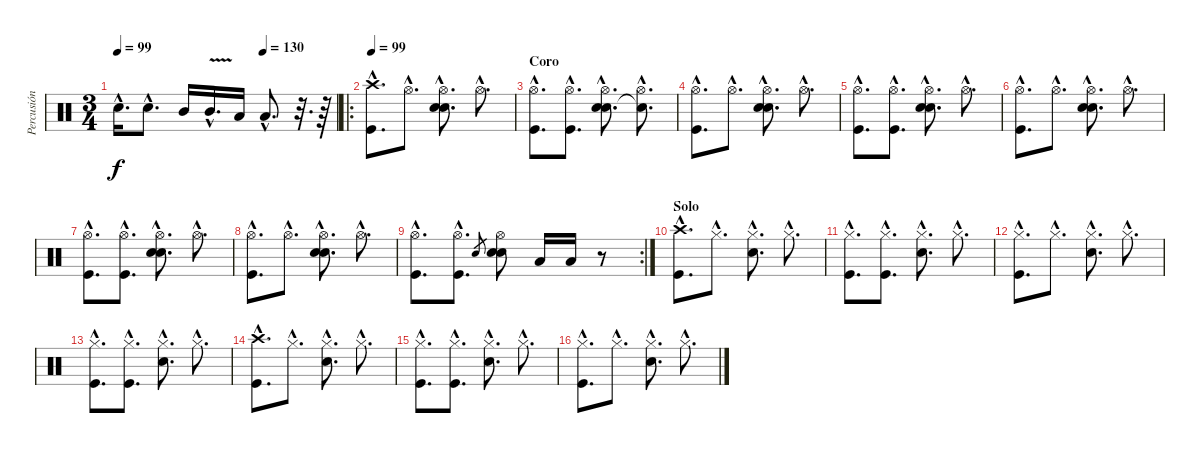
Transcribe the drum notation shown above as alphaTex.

\track ("Percusión" "Percusión") {instrument percussion}
\staff {score}
\articulation defaults
\ts (3 4)
\tempo 99
\tempo (130 0.6666666666666666)
\clef neutral
\ks c "Snare (hit) 2"{hac}.16{d dy f} "Snare (hit) 2"{hac}.8{d} "Mid Tom (hit)".16 "Mid Tom (hit)"{v hac}.16{d} "Low Tom (hit)".16 "Low Tom (hit)"{hac}.8{d}
r.32{d} r.64 |
\ro
\tempo 99
("Crash high (hit)"{hac} "Kick (hit)"{hac}).8{d} "Hi-Hat (open)"{hac}.8{d} ("Hi-Hat (open)"{hac} "Electric Snare (hit)"{hac} "Snare (hit) 2"{hac}).8{d} "Hi-Hat (open)"{hac}.8{d} |
\section ("" "Coro ")
("Hi-Hat (open)"{hac} "Kick (hit)"{hac}).8{d} ("Hi-Hat (open)"{hac} "Kick (hit)"{hac}).8{d} ("Hi-Hat (open)"{hac} "Electric Snare (hit)"{hac} "Snare (hit) 2"{hac}).8{d} ("Hi-Hat (open)"{hac} "Snare (hit)"{hac t}).8{d} |
("Hi-Hat (open)"{hac} "Kick (hit)"{hac}).8{d} "Hi-Hat (open)"{hac}.8{d} ("Hi-Hat (open)"{hac} "Electric Snare (hit)"{hac} "Snare (hit) 2"{hac}).8{d} "Hi-Hat (open)"{hac}.8{d} |
("Hi-Hat (open)"{hac} "Kick (hit)"{hac}).8{d} ("Hi-Hat (open)"{hac} "Kick (hit)"{hac}).8{d} ("Hi-Hat (open)"{hac} "Electric Snare (hit)"{hac} "Snare (hit) 2"{hac}).8{d} "Hi-Hat (open)"{hac}.8{d} |
("Hi-Hat (open)"{hac} "Kick (hit)"{hac}).8{d} "Hi-Hat (open)"{hac}.8{d} ("Hi-Hat (open)"{hac} "Electric Snare (hit)"{hac} "Snare (hit) 2"{hac}).8{d} "Hi-Hat (open)"{hac}.8{d} |
("Hi-Hat (open)"{hac} "Kick (hit)"{hac}).8{d} ("Hi-Hat (open)"{hac} "Kick (hit)"{hac}).8{d} ("Hi-Hat (open)"{hac} "Electric Snare (hit)"{hac} "Snare (hit) 2"{hac}).8{d} "Hi-Hat (open)"{hac}.8{d} |
("Hi-Hat (open)"{hac} "Kick (hit)"{hac}).8{d} "Hi-Hat (open)"{hac}.8{d} ("Hi-Hat (open)"{hac} "Electric Snare (hit)"{hac} "Snare (hit) 2"{hac}).8{d} "Hi-Hat (open)"{hac}.8{d} |
\rc 2
("Hi-Hat (open)"{hac} "Kick (hit)"{hac}).8{d} ("Hi-Hat (open)"{hac} "Kick (hit)"{hac}).8{d} "Snare (hit) 2".8{gr} ("Hi-Hat (open)" "Snare (hit) 2" "Electric Snare (hit)").8 "Low Tom (hit)".16 "Low Tom (hit)".16 r.8 |
\section ("" "Solo")
("Crash high (hit)"{hac} "Kick (hit)"{hac}).8{d} "Hi-Hat (closed)"{hac}.8{d} ("Hi-Hat (closed)"{hac} "Snare (hit) 2"{hac}).8{d} "Hi-Hat (closed)"{hac}.8{d} |
("Hi-Hat (closed)"{hac} "Kick (hit)"{hac}).8{d} ("Hi-Hat (closed)"{hac} "Kick (hit)"{hac}).8{d} ("Hi-Hat (closed)"{hac} "Snare (hit) 2"{hac}).8{d} "Hi-Hat (closed)"{hac}.8{d} |
("Hi-Hat (closed)"{hac} "Kick (hit)"{hac}).8{d} "Hi-Hat (closed)"{hac}.8{d} ("Hi-Hat (closed)"{hac} "Snare (hit) 2"{hac}).8{d} "Hi-Hat (closed)"{hac}.8{d} |
("Hi-Hat (closed)"{hac} "Kick (hit)"{hac}).8{d} ("Hi-Hat (closed)"{hac} "Kick (hit)"{hac}).8{d} ("Hi-Hat (closed)"{hac} "Snare (hit) 2"{hac}).8{d} "Hi-Hat (closed)"{hac}.8{d} |
("Crash high (hit)"{hac} "Kick (hit)"{hac}).8{d} "Hi-Hat (closed)"{hac}.8{d} ("Hi-Hat (closed)"{hac} "Snare (hit) 2"{hac}).8{d} "Hi-Hat (closed)"{hac}.8{d} |
("Hi-Hat (closed)"{hac} "Kick (hit)"{hac}).8{d} ("Hi-Hat (closed)"{hac} "Kick (hit)"{hac}).8{d} ("Hi-Hat (closed)"{hac} "Snare (hit) 2"{hac}).8{d} "Hi-Hat (closed)"{hac}.8{d} |
("Hi-Hat (closed)"{hac} "Kick (hit)"{hac}).8{d} "Hi-Hat (closed)"{hac}.8{d} ("Hi-Hat (closed)"{hac} "Snare (hit) 2"{hac}).8{d} "Hi-Hat (closed)"{hac}.8{d}
